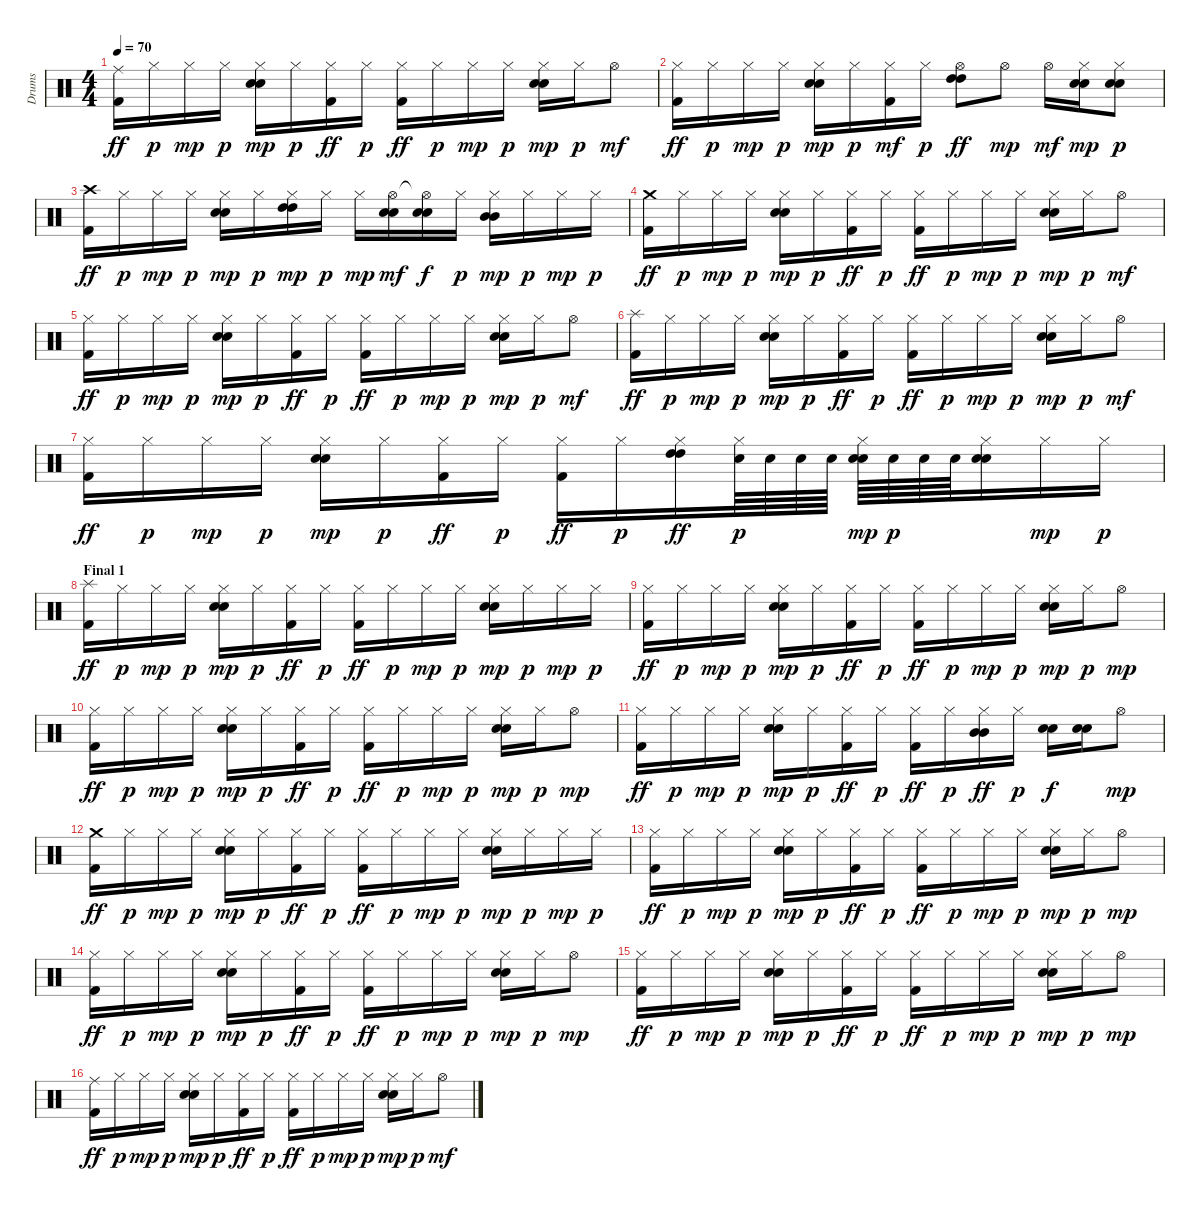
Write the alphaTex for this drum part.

\track ("Drums" "Drums") {instrument percussion}
\staff {score}
\articulation defaults
\ts (4 4)
\tempo 70
\clef neutral
\ks c
("Ride (middle)" "Kick (hit) 2").16{dy ff} "Hi-Hat (closed)".16{dy p} "Hi-Hat (closed)".16{dy mp} "Hi-Hat (closed)".16{dy p} ("Hi-Hat (closed)" "Electric Snare (hit)" "Snare (hit) 2").16{dy mp} "Hi-Hat (closed)".16{dy p} ("Hi-Hat (closed)" "Kick (hit) 2").16{dy ff} "Hi-Hat (closed)".16{dy p} ("Hi-Hat (closed)" "Kick (hit) 2").16{dy ff} "Hi-Hat (closed)".16{dy p} "Hi-Hat (closed)".16{dy mp} "Hi-Hat (closed)".16{dy p} ("Hi-Hat (closed)" "Electric Snare (hit)" "Snare (hit) 2").16{dy mp} "Hi-Hat (closed)".16{dy p} "Hi-Hat (open)".8{dy mf} |
("Hi-Hat (closed)" "Kick (hit) 2").16{dy ff} "Hi-Hat (closed)".16{dy p} "Hi-Hat (closed)".16{dy mp} "Hi-Hat (closed)".16{dy p} ("Hi-Hat (closed)" "Electric Snare (hit)" "Snare (hit) 2").16{dy mp} "Hi-Hat (closed)".16{dy p} ("Hi-Hat (closed)" "Kick (hit) 2").16{dy mf} "Hi-Hat (closed)".16{dy p} ("Hi-Hat (open)" "High Tom (hit)" "High Tom (hit)").8{dy ff} "Hi-Hat (open)".8{dy mp} "Hi-Hat (open)".16{dy mf} ("Hi-Hat (closed)" "Electric Snare (hit)" "Snare (hit) 2").16{dy mp} ("Hi-Hat (closed)" "Electric Snare (hit)" "Snare (hit) 2").8{dy p} |
("Crash high (hit)" "Kick (hit) 2").16{dy ff} "Hi-Hat (closed)".16{dy p} "Hi-Hat (closed)".16{dy mp} "Hi-Hat (closed)".16{dy p} ("Hi-Hat (closed)" "Electric Snare (hit)" "Snare (hit) 2").16{dy mp} "Hi-Hat (closed)".16{dy p} ("Hi-Hat (closed)" "High Tom (hit)" "High Tom (hit)").16{dy mp} "Hi-Hat (closed)".16{dy p} "Hi-Hat (closed)".16{dy mp} ("Hi-Hat (open)" "Electric Snare (hit)" "Snare (hit) 2").16{dy mf} ("Hi-Hat (open)"{t} "Electric Snare (hit)" "Snare (hit) 2").16{dy f} "Hi-Hat (closed)".16{dy p} ("Hi-Hat (closed)" "Mid Tom (hit)" "Mid Tom (hit)").16{dy mp} "Hi-Hat (closed)".16{dy p} "Hi-Hat (closed)".16{dy mp} "Hi-Hat (closed)".16{dy p} |
("Crash medium (hit)" "Kick (hit) 2").16{dy ff} "Hi-Hat (closed)".16{dy p} "Hi-Hat (closed)".16{dy mp} "Hi-Hat (closed)".16{dy p} ("Hi-Hat (closed)" "Electric Snare (hit)" "Snare (hit) 2").16{dy mp} "Hi-Hat (closed)".16{dy p} ("Hi-Hat (closed)" "Kick (hit) 2").16{dy ff} "Hi-Hat (closed)".16{dy p} ("Hi-Hat (closed)" "Kick (hit) 2").16{dy ff} "Hi-Hat (closed)".16{dy p} "Hi-Hat (closed)".16{dy mp} "Hi-Hat (closed)".16{dy p} ("Hi-Hat (closed)" "Electric Snare (hit)" "Snare (hit) 2").16{dy mp} "Hi-Hat (closed)".16{dy p} "Hi-Hat (open)".8{dy mf} |
("Hi-Hat (closed)" "Kick (hit) 2").16{dy ff} "Hi-Hat (closed)".16{dy p} "Hi-Hat (closed)".16{dy mp} "Hi-Hat (closed)".16{dy p} ("Hi-Hat (closed)" "Electric Snare (hit)" "Snare (hit) 2").16{dy mp} "Hi-Hat (closed)".16{dy p} ("Hi-Hat (closed)" "Kick (hit) 2").16{dy ff} "Hi-Hat (closed)".16{dy p} ("Hi-Hat (closed)" "Kick (hit) 2").16{dy ff} "Hi-Hat (closed)".16{dy p} "Hi-Hat (closed)".16{dy mp} "Hi-Hat (closed)".16{dy p} ("Hi-Hat (closed)" "Electric Snare (hit)" "Snare (hit) 2").16{dy mp} "Hi-Hat (closed)".16{dy p} "Hi-Hat (open)".8{dy mf} |
("Splash (hit)" "Kick (hit) 2").16{dy ff} "Hi-Hat (closed)".16{dy p} "Hi-Hat (closed)".16{dy mp} "Hi-Hat (closed)".16{dy p} ("Hi-Hat (closed)" "Electric Snare (hit)" "Snare (hit) 2").16{dy mp} "Hi-Hat (closed)".16{dy p} ("Hi-Hat (closed)" "Kick (hit) 2").16{dy ff} "Hi-Hat (closed)".16{dy p} ("Hi-Hat (closed)" "Kick (hit) 2").16{dy ff} "Hi-Hat (closed)".16{dy p} "Hi-Hat (closed)".16{dy mp} "Hi-Hat (closed)".16{dy p} ("Hi-Hat (closed)" "Electric Snare (hit)" "Snare (hit) 2").16{dy mp} "Hi-Hat (closed)".16{dy p} "Hi-Hat (open)".8{dy mf} |
("Hi-Hat (closed)" "Kick (hit) 2").16{dy ff} "Hi-Hat (closed)".16{dy p} "Hi-Hat (closed)".16{dy mp} "Hi-Hat (closed)".16{dy p} ("Hi-Hat (closed)" "Electric Snare (hit)" "Snare (hit) 2").16{dy mp} "Hi-Hat (closed)".16{dy p} ("Hi-Hat (closed)" "Kick (hit) 2").16{dy ff} "Hi-Hat (closed)".16{dy p} ("Hi-Hat (closed)" "Kick (hit) 2").16{dy ff} "Hi-Hat (closed)".16{dy p} ("Hi-Hat (closed)" "High Tom (hit)" "High Tom (hit)").16{dy ff} ("Hi-Hat (closed)" "Snare (hit) 2").64{dy p} "Snare (hit) 2".64 "Snare (hit) 2".64 "Snare (hit) 2".64 ("Hi-Hat (closed)" "Electric Snare (hit)" "Snare (hit) 2").64{dy mp} "Snare (hit) 2".64{dy p} "Snare (hit) 2".64 "Snare (hit) 2".64 ("Hi-Hat (closed)" "Electric Snare (hit)" "Snare (hit) 2").16 "Hi-Hat (closed)".16{dy mp} "Hi-Hat (closed)".16{dy p} |
\section ("" "Final 1")
("Splash (hit)" "Kick (hit) 2").16{dy ff} "Hi-Hat (closed)".16{dy p} "Hi-Hat (closed)".16{dy mp} "Hi-Hat (closed)".16{dy p} ("Hi-Hat (closed)" "Electric Snare (hit)" "Snare (hit) 2").16{dy mp} "Hi-Hat (closed)".16{dy p} ("Hi-Hat (closed)" "Kick (hit) 2").16{dy ff} "Hi-Hat (closed)".16{dy p} ("Hi-Hat (closed)" "Kick (hit) 2").16{dy ff} "Hi-Hat (closed)".16{dy p} "Hi-Hat (closed)".16{dy mp} "Hi-Hat (closed)".16{dy p} ("Hi-Hat (closed)" "Electric Snare (hit)" "Snare (hit) 2").16{dy mp} "Hi-Hat (closed)".16{dy p} "Hi-Hat (closed)".16{dy mp} "Hi-Hat (closed)".16{dy p} |
("Hi-Hat (closed)" "Kick (hit) 2").16{dy ff} "Hi-Hat (closed)".16{dy p} "Hi-Hat (closed)".16{dy mp} "Hi-Hat (closed)".16{dy p} ("Hi-Hat (closed)" "Electric Snare (hit)" "Snare (hit) 2").16{dy mp} "Hi-Hat (closed)".16{dy p} ("Hi-Hat (closed)" "Kick (hit) 2").16{dy ff} "Hi-Hat (closed)".16{dy p} ("Hi-Hat (closed)" "Kick (hit) 2").16{dy ff} "Hi-Hat (closed)".16{dy p} "Hi-Hat (closed)".16{dy mp} "Hi-Hat (closed)".16{dy p} ("Hi-Hat (closed)" "Electric Snare (hit)" "Snare (hit) 2").16{dy mp} "Hi-Hat (closed)".16{dy p} "Hi-Hat (open)".8{dy mp} |
("Hi-Hat (closed)" "Kick (hit) 2").16{dy ff} "Hi-Hat (closed)".16{dy p} "Hi-Hat (closed)".16{dy mp} "Hi-Hat (closed)".16{dy p} ("Hi-Hat (closed)" "Electric Snare (hit)" "Snare (hit) 2").16{dy mp} "Hi-Hat (closed)".16{dy p} ("Hi-Hat (closed)" "Kick (hit) 2").16{dy ff} "Hi-Hat (closed)".16{dy p} ("Hi-Hat (closed)" "Kick (hit) 2").16{dy ff} "Hi-Hat (closed)".16{dy p} "Hi-Hat (closed)".16{dy mp} "Hi-Hat (closed)".16{dy p} ("Hi-Hat (closed)" "Electric Snare (hit)" "Snare (hit) 2").16{dy mp} "Hi-Hat (closed)".16{dy p} "Hi-Hat (open)".8{dy mp} |
("Hi-Hat (closed)" "Kick (hit) 2").16{dy ff} "Hi-Hat (closed)".16{dy p} "Hi-Hat (closed)".16{dy mp} "Hi-Hat (closed)".16{dy p} ("Hi-Hat (closed)" "Electric Snare (hit)" "Snare (hit) 2").16{dy mp} "Hi-Hat (closed)".16{dy p} ("Hi-Hat (closed)" "Kick (hit) 2").16{dy ff} "Hi-Hat (closed)".16{dy p} ("Hi-Hat (closed)" "Kick (hit) 2").16{dy ff} "Hi-Hat (closed)".16{dy p} ("Hi-Hat (closed)" "Mid Tom (hit)" "Mid Tom (hit)").16{dy ff} "Hi-Hat (closed)".16{dy p} ("Electric Snare (hit)" "Snare (hit) 2").16{dy f} ("Electric Snare (hit)" "Snare (hit) 2").16 "Hi-Hat (open)".8{dy mp} |
("Crash medium (hit)" "Kick (hit) 2").16{dy ff} "Hi-Hat (closed)".16{dy p} "Hi-Hat (closed)".16{dy mp} "Hi-Hat (closed)".16{dy p} ("Hi-Hat (closed)" "Electric Snare (hit)" "Snare (hit) 2").16{dy mp} "Hi-Hat (closed)".16{dy p} ("Hi-Hat (closed)" "Kick (hit) 2").16{dy ff} "Hi-Hat (closed)".16{dy p} ("Hi-Hat (closed)" "Kick (hit) 2").16{dy ff} "Hi-Hat (closed)".16{dy p} "Hi-Hat (closed)".16{dy mp} "Hi-Hat (closed)".16{dy p} ("Hi-Hat (closed)" "Electric Snare (hit)" "Snare (hit) 2").16{dy mp} "Hi-Hat (closed)".16{dy p} "Hi-Hat (closed)".16{dy mp} "Hi-Hat (closed)".16{dy p} |
("Hi-Hat (closed)" "Kick (hit) 2").16{dy ff} "Hi-Hat (closed)".16{dy p} "Hi-Hat (closed)".16{dy mp} "Hi-Hat (closed)".16{dy p} ("Hi-Hat (closed)" "Electric Snare (hit)" "Snare (hit) 2").16{dy mp} "Hi-Hat (closed)".16{dy p} ("Hi-Hat (closed)" "Kick (hit) 2").16{dy ff} "Hi-Hat (closed)".16{dy p} ("Hi-Hat (closed)" "Kick (hit) 2").16{dy ff} "Hi-Hat (closed)".16{dy p} "Hi-Hat (closed)".16{dy mp} "Hi-Hat (closed)".16{dy p} ("Hi-Hat (closed)" "Electric Snare (hit)" "Snare (hit) 2").16{dy mp} "Hi-Hat (closed)".16{dy p} "Hi-Hat (open)".8{dy mp} |
("Hi-Hat (closed)" "Kick (hit) 2").16{dy ff} "Hi-Hat (closed)".16{dy p} "Hi-Hat (closed)".16{dy mp} "Hi-Hat (closed)".16{dy p} ("Hi-Hat (closed)" "Electric Snare (hit)" "Snare (hit) 2").16{dy mp} "Hi-Hat (closed)".16{dy p} ("Hi-Hat (closed)" "Kick (hit) 2").16{dy ff} "Hi-Hat (closed)".16{dy p} ("Hi-Hat (closed)" "Kick (hit) 2").16{dy ff} "Hi-Hat (closed)".16{dy p} "Hi-Hat (closed)".16{dy mp} "Hi-Hat (closed)".16{dy p} ("Hi-Hat (closed)" "Electric Snare (hit)" "Snare (hit) 2").16{dy mp} "Hi-Hat (closed)".16{dy p} "Hi-Hat (open)".8{dy mp} |
("Hi-Hat (closed)" "Kick (hit) 2").16{dy ff} "Hi-Hat (closed)".16{dy p} "Hi-Hat (closed)".16{dy mp} "Hi-Hat (closed)".16{dy p} ("Hi-Hat (closed)" "Electric Snare (hit)" "Snare (hit) 2").16{dy mp} "Hi-Hat (closed)".16{dy p} ("Hi-Hat (closed)" "Kick (hit) 2").16{dy ff} "Hi-Hat (closed)".16{dy p} ("Hi-Hat (closed)" "Kick (hit) 2").16{dy ff} "Hi-Hat (closed)".16{dy p} "Hi-Hat (closed)".16{dy mp} "Hi-Hat (closed)".16{dy p} ("Hi-Hat (closed)" "Electric Snare (hit)" "Snare (hit) 2").16{dy mp} "Hi-Hat (closed)".16{dy p} "Hi-Hat (open)".8{dy mp} |
("Ride (middle)" "Kick (hit) 2").16{dy ff} "Hi-Hat (closed)".16{dy p} "Hi-Hat (closed)".16{dy mp} "Hi-Hat (closed)".16{dy p} ("Hi-Hat (closed)" "Electric Snare (hit)" "Snare (hit) 2").16{dy mp} "Hi-Hat (closed)".16{dy p} ("Hi-Hat (closed)" "Kick (hit) 2").16{dy ff} "Hi-Hat (closed)".16{dy p} ("Hi-Hat (closed)" "Kick (hit) 2").16{dy ff} "Hi-Hat (closed)".16{dy p} "Hi-Hat (closed)".16{dy mp} "Hi-Hat (closed)".16{dy p} ("Hi-Hat (closed)" "Electric Snare (hit)" "Snare (hit) 2").16{dy mp} "Hi-Hat (closed)".16{dy p} "Hi-Hat (open)".8{dy mf}
